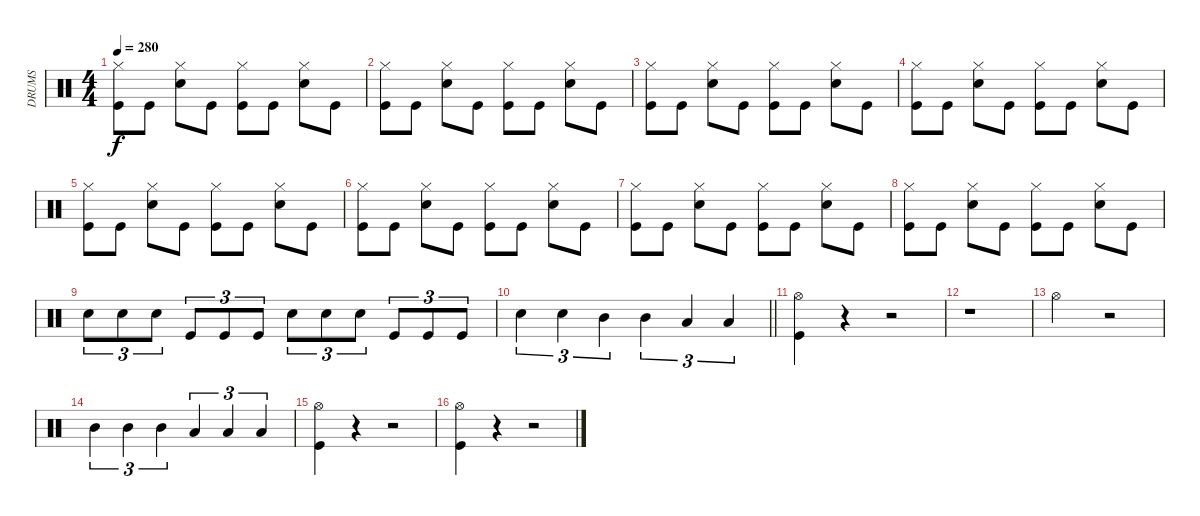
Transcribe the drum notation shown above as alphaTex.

\track ("DRUMS" "DRUMS") {instrument percussion}
\staff {score}
\articulation defaults
\ts (4 4)
\tempo 280
\clef neutral
\ks c
("Hi-Hat (closed)" "Kick (hit)").8{dy f} "Kick (hit)".8 ("Hi-Hat (closed)" "Snare (hit) 2").8 "Kick (hit)".8 ("Hi-Hat (closed)" "Kick (hit)").8 "Kick (hit)".8 ("Hi-Hat (closed)" "Snare (hit) 2").8 "Kick (hit)".8 |
("Hi-Hat (closed)" "Kick (hit)").8 "Kick (hit)".8 ("Hi-Hat (closed)" "Snare (hit) 2").8 "Kick (hit)".8 ("Hi-Hat (closed)" "Kick (hit)").8 "Kick (hit)".8 ("Hi-Hat (closed)" "Snare (hit) 2").8 "Kick (hit)".8 |
("Hi-Hat (closed)" "Kick (hit)").8 "Kick (hit)".8 ("Hi-Hat (closed)" "Snare (hit) 2").8 "Kick (hit)".8 ("Hi-Hat (closed)" "Kick (hit)").8 "Kick (hit)".8 ("Hi-Hat (closed)" "Snare (hit) 2").8 "Kick (hit)".8 |
("Hi-Hat (closed)" "Kick (hit)").8 "Kick (hit)".8 ("Hi-Hat (closed)" "Snare (hit) 2").8 "Kick (hit)".8 ("Hi-Hat (closed)" "Kick (hit)").8 "Kick (hit)".8 ("Hi-Hat (closed)" "Snare (hit) 2").8 "Kick (hit)".8 |
("Hi-Hat (closed)" "Kick (hit)").8 "Kick (hit)".8 ("Hi-Hat (closed)" "Snare (hit) 2").8 "Kick (hit)".8 ("Hi-Hat (closed)" "Kick (hit)").8 "Kick (hit)".8 ("Hi-Hat (closed)" "Snare (hit) 2").8 "Kick (hit)".8 |
("Hi-Hat (closed)" "Kick (hit)").8 "Kick (hit)".8 ("Hi-Hat (closed)" "Snare (hit) 2").8 "Kick (hit)".8 ("Hi-Hat (closed)" "Kick (hit)").8 "Kick (hit)".8 ("Hi-Hat (closed)" "Snare (hit) 2").8 "Kick (hit)".8 |
("Hi-Hat (closed)" "Kick (hit)").8 "Kick (hit)".8 ("Hi-Hat (closed)" "Snare (hit) 2").8 "Kick (hit)".8 ("Hi-Hat (closed)" "Kick (hit)").8 "Kick (hit)".8 ("Hi-Hat (closed)" "Snare (hit) 2").8 "Kick (hit)".8 |
("Hi-Hat (closed)" "Kick (hit)").8 "Kick (hit)".8 ("Hi-Hat (closed)" "Snare (hit) 2").8 "Kick (hit)".8 ("Hi-Hat (closed)" "Kick (hit)").8 "Kick (hit)".8 ("Hi-Hat (closed)" "Snare (hit) 2").8 "Kick (hit)".8 |
"Snare (hit) 2".8{tu (3 2)} "Snare (hit) 2".8{tu (3 2)} "Snare (hit) 2".8{tu (3 2)} "Kick (hit)".8{tu (3 2)} "Kick (hit)".8{tu (3 2)} "Kick (hit)".8{tu (3 2)} "Snare (hit) 2".8{tu (3 2)} "Snare (hit) 2".8{tu (3 2)} "Snare (hit) 2".8{tu (3 2)} "Kick (hit)".8{tu (3 2)} "Kick (hit)".8{tu (3 2)} "Kick (hit)".8{tu (3 2)} |
\barLineRight lightlight "Snare (hit) 2".4{tu (3 2)} "Snare (hit) 2".4{tu (3 2)} "Mid Tom (hit)".4{tu (3 2)} "Mid Tom (hit)".4{tu (3 2)} "Low Tom (hit)".4{tu (3 2)} "Low Tom (hit)".4{tu (3 2)}
|
("Hi-Hat (open)" "Kick (hit)").4 r.4 r.2 |
r.1 |
"Hi-Hat (open)".2 r.2 |
"Mid Tom (hit)".4{tu (3 2)} "Mid Tom (hit)".4{tu (3 2)} "Mid Tom (hit)".4{tu (3 2)} "Low Tom (hit)".4{tu (3 2)} "Low Tom (hit)".4{tu (3 2)} "Low Tom (hit)".4{tu (3 2)} |
("Hi-Hat (open)" "Kick (hit)").4 r.4 r.2 |
("Hi-Hat (open)" "Kick (hit)").4 r.4 r.2
